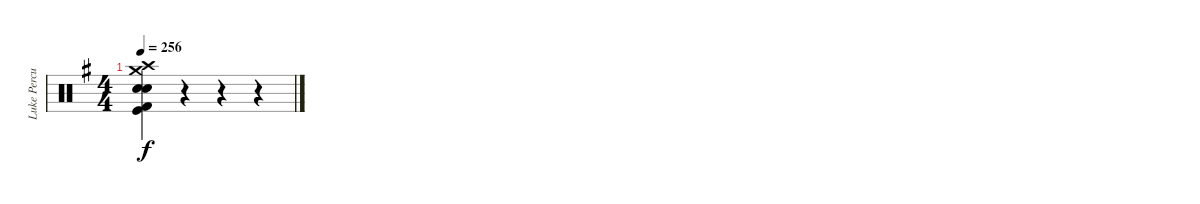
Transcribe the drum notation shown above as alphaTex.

\track ("Luke Percussion" "Luke Percu") {instrument percussion}
\staff {score}
\articulation defaults
\ts (4 4)
\tempo 256
\clef neutral
\ks eminor
("Crash medium (hit)" "Crash high (hit)" "Hand Clap (hit)" "Snare (hit) 2" "Kick (hit) 2" "Kick (hit)").4{dy f} r.4 r.4 r.4
